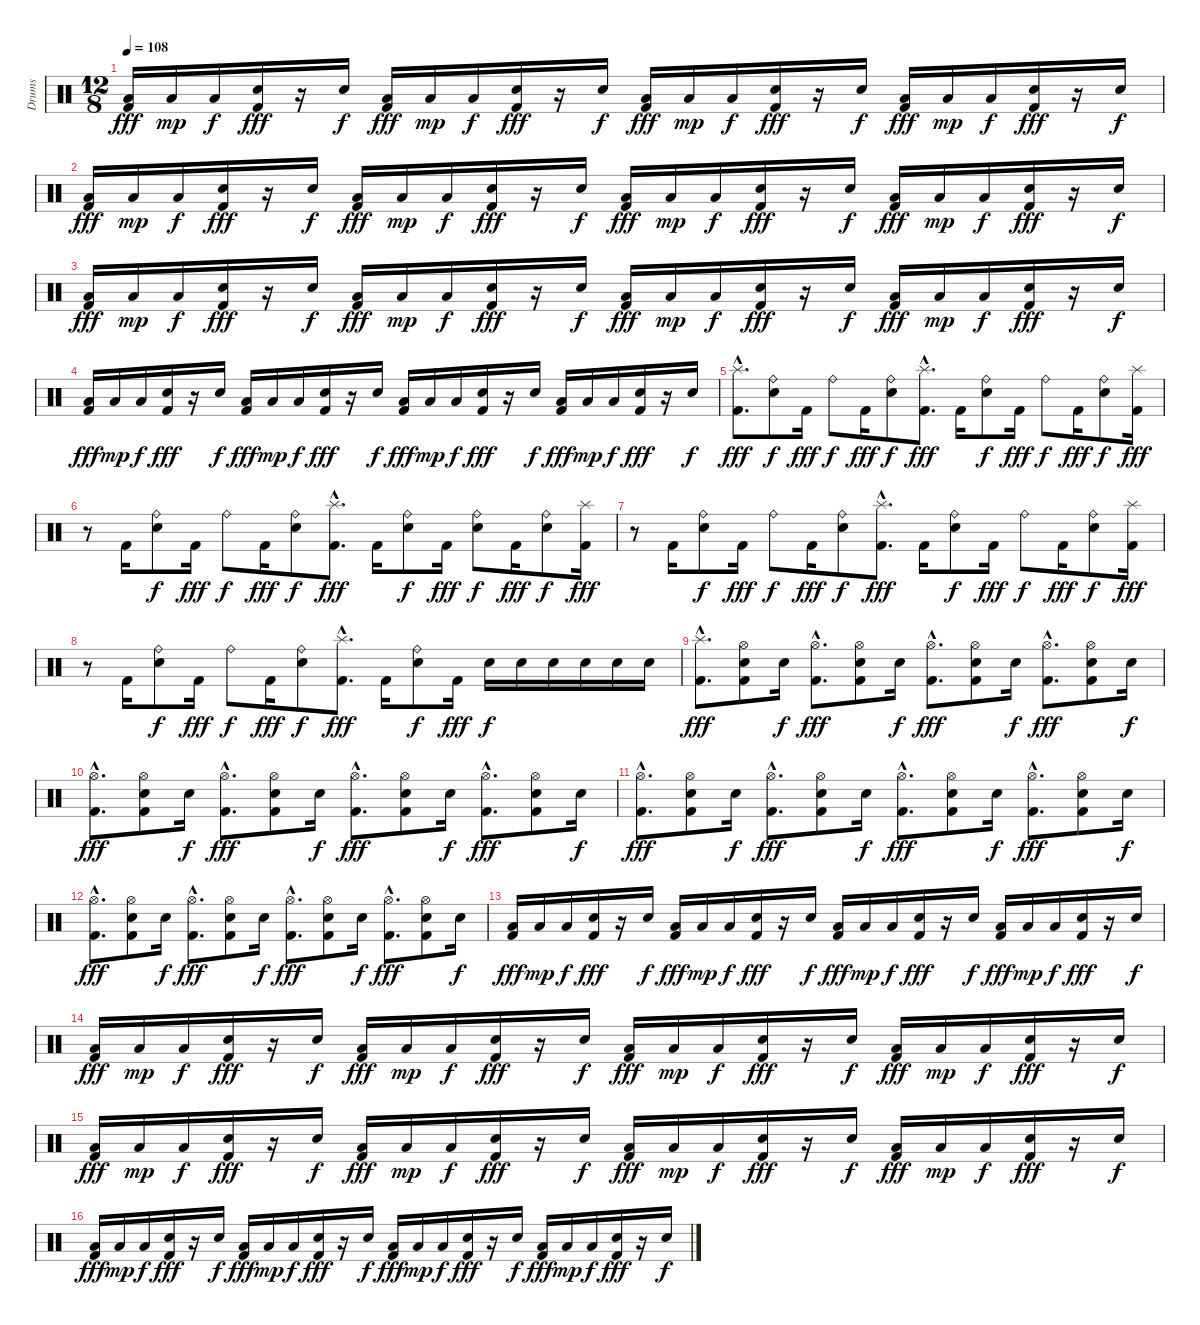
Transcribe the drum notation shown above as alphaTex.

\track ("Drums" "Drums") {instrument percussion}
\staff {score}
\articulation defaults
\ts (12 8)
\tempo 108
\clef neutral
\ks c
("Low Floor Tom (hit)" "Kick (hit) 2").16{dy fff} "Low Floor Tom (hit)".16{dy mp} "Low Floor Tom (hit)".16{dy f} ("Snare (hit) 2" "Kick (hit) 2").16{dy fff} r.16 "Snare (hit) 2".16{dy f} ("Low Floor Tom (hit)" "Kick (hit) 2").16{dy fff} "Low Floor Tom (hit)".16{dy mp} "Low Floor Tom (hit)".16{dy f} ("Snare (hit) 2" "Kick (hit) 2").16{dy fff} r.16 "Snare (hit) 2".16{dy f} ("Low Floor Tom (hit)" "Kick (hit) 2").16{dy fff} "Low Floor Tom (hit)".16{dy mp} "Low Floor Tom (hit)".16{dy f} ("Snare (hit) 2" "Kick (hit) 2").16{dy fff} r.16 "Snare (hit) 2".16{dy f} ("Low Floor Tom (hit)" "Kick (hit) 2").16{dy fff} "Low Floor Tom (hit)".16{dy mp} "Low Floor Tom (hit)".16{dy f} ("Snare (hit) 2" "Kick (hit) 2").16{dy fff} r.16 "Snare (hit) 2".16{dy f} |
("Low Floor Tom (hit)" "Kick (hit) 2").16{dy fff} "Low Floor Tom (hit)".16{dy mp} "Low Floor Tom (hit)".16{dy f} ("Snare (hit) 2" "Kick (hit) 2").16{dy fff} r.16 "Snare (hit) 2".16{dy f} ("Low Floor Tom (hit)" "Kick (hit) 2").16{dy fff} "Low Floor Tom (hit)".16{dy mp} "Low Floor Tom (hit)".16{dy f} ("Snare (hit) 2" "Kick (hit) 2").16{dy fff} r.16 "Snare (hit) 2".16{dy f} ("Low Floor Tom (hit)" "Kick (hit) 2").16{dy fff} "Low Floor Tom (hit)".16{dy mp} "Low Floor Tom (hit)".16{dy f} ("Snare (hit) 2" "Kick (hit) 2").16{dy fff} r.16 "Snare (hit) 2".16{dy f} ("Low Floor Tom (hit)" "Kick (hit) 2").16{dy fff} "Low Floor Tom (hit)".16{dy mp} "Low Floor Tom (hit)".16{dy f} ("Snare (hit) 2" "Kick (hit) 2").16{dy fff} r.16 "Snare (hit) 2".16{dy f} |
("Low Floor Tom (hit)" "Kick (hit) 2").16{dy fff} "Low Floor Tom (hit)".16{dy mp} "Low Floor Tom (hit)".16{dy f} ("Snare (hit) 2" "Kick (hit) 2").16{dy fff} r.16 "Snare (hit) 2".16{dy f} ("Low Floor Tom (hit)" "Kick (hit) 2").16{dy fff} "Low Floor Tom (hit)".16{dy mp} "Low Floor Tom (hit)".16{dy f} ("Snare (hit) 2" "Kick (hit) 2").16{dy fff} r.16 "Snare (hit) 2".16{dy f} ("Low Floor Tom (hit)" "Kick (hit) 2").16{dy fff} "Low Floor Tom (hit)".16{dy mp} "Low Floor Tom (hit)".16{dy f} ("Snare (hit) 2" "Kick (hit) 2").16{dy fff} r.16 "Snare (hit) 2".16{dy f} ("Low Floor Tom (hit)" "Kick (hit) 2").16{dy fff} "Low Floor Tom (hit)".16{dy mp} "Low Floor Tom (hit)".16{dy f} ("Snare (hit) 2" "Kick (hit) 2").16{dy fff} r.16 "Snare (hit) 2".16{dy f} |
("Low Floor Tom (hit)" "Kick (hit) 2").16{dy fff} "Low Floor Tom (hit)".16{dy mp} "Low Floor Tom (hit)".16{dy f} ("Snare (hit) 2" "Kick (hit) 2").16{dy fff} r.16 "Snare (hit) 2".16{dy f} ("Low Floor Tom (hit)" "Kick (hit) 2").16{dy fff} "Low Floor Tom (hit)".16{dy mp} "Low Floor Tom (hit)".16{dy f} ("Snare (hit) 2" "Kick (hit) 2").16{dy fff} r.16 "Snare (hit) 2".16{dy f} ("Low Floor Tom (hit)" "Kick (hit) 2").16{dy fff} "Low Floor Tom (hit)".16{dy mp} "Low Floor Tom (hit)".16{dy f} ("Snare (hit) 2" "Kick (hit) 2").16{dy fff} r.16 "Snare (hit) 2".16{dy f} ("Low Floor Tom (hit)" "Kick (hit) 2").16{dy fff} "Low Floor Tom (hit)".16{dy mp} "Low Floor Tom (hit)".16{dy f} ("Snare (hit) 2" "Kick (hit) 2").16{dy fff} r.16 "Snare (hit) 2".16{dy f} |
("Splash (hit)"{hac} "Kick (hit) 2"{hac}).8{d dy fff} ("Ride (bell)" "Snare (hit) 2").8{dy f} "Kick (hit) 2".16{dy fff} "Ride (bell)".8{dy f} "Kick (hit) 2".16{dy fff} ("Ride (bell)" "Snare (hit) 2").8{dy f} ("Splash (hit)"{hac} "Kick (hit) 2"{hac}).8{d dy fff} "Kick (hit) 2".16 ("Ride (bell)" "Snare (hit) 2").8{dy f} "Kick (hit) 2".16{dy fff} "Ride (bell)".8{dy f} "Kick (hit) 2".16{dy fff} ("Ride (bell)" "Snare (hit) 2").8{dy f} ("Splash (hit)" "Kick (hit) 2").16{dy fff} |
r.8 "Kick (hit) 2".16 ("Ride (bell)" "Snare (hit) 2").8{dy f} "Kick (hit) 2".16{dy fff} "Ride (bell)".8{dy f} "Kick (hit) 2".16{dy fff} ("Ride (bell)" "Snare (hit) 2").8{dy f} ("Splash (hit)"{hac} "Kick (hit) 2"{hac}).8{d dy fff} "Kick (hit) 2".16 ("Ride (bell)" "Snare (hit) 2").8{dy f} "Kick (hit) 2".16{dy fff} ("Ride (bell)" "Snare (hit) 2").8{dy f} "Kick (hit) 2".16{dy fff} ("Ride (bell)" "Snare (hit) 2").8{dy f} ("Splash (hit)" "Kick (hit) 2").16{dy fff} |
r.8 "Kick (hit) 2".16 ("Ride (bell)" "Snare (hit) 2").8{dy f} "Kick (hit) 2".16{dy fff} "Ride (bell)".8{dy f} "Kick (hit) 2".16{dy fff} ("Ride (bell)" "Snare (hit) 2").8{dy f} ("Splash (hit)"{hac} "Kick (hit) 2"{hac}).8{d dy fff} "Kick (hit) 2".16 ("Ride (bell)" "Snare (hit) 2").8{dy f} "Kick (hit) 2".16{dy fff} "Ride (bell)".8{dy f} "Kick (hit) 2".16{dy fff} ("Ride (bell)" "Snare (hit) 2").8{dy f} ("Splash (hit)" "Kick (hit) 2").16{dy fff} |
r.8 "Kick (hit) 2".16 ("Ride (bell)" "Snare (hit) 2").8{dy f} "Kick (hit) 2".16{dy fff} "Ride (bell)".8{dy f} "Kick (hit) 2".16{dy fff} ("Ride (bell)" "Snare (hit) 2").8{dy f} ("Splash (hit)"{hac} "Kick (hit) 2"{hac}).8{d dy fff} "Kick (hit) 2".16 ("Ride (bell)" "Snare (hit) 2").8{dy f} "Kick (hit) 2".16{dy fff} "Snare (hit) 2".16{dy f} "Snare (hit) 2".16 "Snare (hit) 2".16 "Snare (hit) 2".16 "Snare (hit) 2".16 "Snare (hit) 2".16 |
("Splash (hit)"{hac} "Kick (hit) 2"{hac}).8{d dy fff} ("Hi-Hat (open)" "Snare (hit) 2" "Kick (hit) 2").8 "Snare (hit) 2".16{dy f} ("Hi-Hat (open)"{hac} "Kick (hit) 2"{hac}).8{d dy fff} ("Hi-Hat (open)" "Snare (hit) 2" "Kick (hit) 2").8 "Snare (hit) 2".16{dy f} ("Hi-Hat (open)"{hac} "Kick (hit) 2"{hac}).8{d dy fff} ("Hi-Hat (open)" "Snare (hit) 2" "Kick (hit) 2").8 "Snare (hit) 2".16{dy f} ("Hi-Hat (open)"{hac} "Kick (hit) 2"{hac}).8{d dy fff} ("Hi-Hat (open)" "Snare (hit) 2" "Kick (hit) 2").8 "Snare (hit) 2".16{dy f} |
("Hi-Hat (open)"{hac} "Kick (hit) 2"{hac}).8{d dy fff} ("Hi-Hat (open)" "Snare (hit) 2" "Kick (hit) 2").8 "Snare (hit) 2".16{dy f} ("Hi-Hat (open)"{hac} "Kick (hit) 2"{hac}).8{d dy fff} ("Hi-Hat (open)" "Snare (hit) 2" "Kick (hit) 2").8 "Snare (hit) 2".16{dy f} ("Hi-Hat (open)"{hac} "Kick (hit) 2"{hac}).8{d dy fff} ("Hi-Hat (open)" "Snare (hit) 2" "Kick (hit) 2").8 "Snare (hit) 2".16{dy f} ("Hi-Hat (open)"{hac} "Kick (hit) 2"{hac}).8{d dy fff} ("Hi-Hat (open)" "Snare (hit) 2" "Kick (hit) 2").8 "Snare (hit) 2".16{dy f} |
("Hi-Hat (open)"{hac} "Kick (hit) 2"{hac}).8{d dy fff} ("Hi-Hat (open)" "Snare (hit) 2" "Kick (hit) 2").8 "Snare (hit) 2".16{dy f} ("Hi-Hat (open)"{hac} "Kick (hit) 2"{hac}).8{d dy fff} ("Hi-Hat (open)" "Snare (hit) 2" "Kick (hit) 2").8 "Snare (hit) 2".16{dy f} ("Hi-Hat (open)"{hac} "Kick (hit) 2"{hac}).8{d dy fff} ("Hi-Hat (open)" "Snare (hit) 2" "Kick (hit) 2").8 "Snare (hit) 2".16{dy f} ("Hi-Hat (open)"{hac} "Kick (hit) 2"{hac}).8{d dy fff} ("Hi-Hat (open)" "Snare (hit) 2" "Kick (hit) 2").8 "Snare (hit) 2".16{dy f} |
("Hi-Hat (open)"{hac} "Kick (hit) 2"{hac}).8{d dy fff} ("Hi-Hat (open)" "Snare (hit) 2" "Kick (hit) 2").8 "Snare (hit) 2".16{dy f} ("Hi-Hat (open)"{hac} "Kick (hit) 2"{hac}).8{d dy fff} ("Hi-Hat (open)" "Snare (hit) 2" "Kick (hit) 2").8 "Snare (hit) 2".16{dy f} ("Hi-Hat (open)"{hac} "Kick (hit) 2"{hac}).8{d dy fff} ("Hi-Hat (open)" "Snare (hit) 2" "Kick (hit) 2").8 "Snare (hit) 2".16{dy f} ("Hi-Hat (open)"{hac} "Kick (hit) 2"{hac}).8{d dy fff} ("Hi-Hat (open)" "Snare (hit) 2" "Kick (hit) 2").8 "Snare (hit) 2".16{dy f} |
("Low Floor Tom (hit)" "Kick (hit) 2").16{dy fff} "Low Floor Tom (hit)".16{dy mp} "Low Floor Tom (hit)".16{dy f} ("Snare (hit) 2" "Kick (hit) 2").16{dy fff} r.16 "Snare (hit) 2".16{dy f} ("Low Floor Tom (hit)" "Kick (hit) 2").16{dy fff} "Low Floor Tom (hit)".16{dy mp} "Low Floor Tom (hit)".16{dy f} ("Snare (hit) 2" "Kick (hit) 2").16{dy fff} r.16 "Snare (hit) 2".16{dy f} ("Low Floor Tom (hit)" "Kick (hit) 2").16{dy fff} "Low Floor Tom (hit)".16{dy mp} "Low Floor Tom (hit)".16{dy f} ("Snare (hit) 2" "Kick (hit) 2").16{dy fff} r.16 "Snare (hit) 2".16{dy f} ("Low Floor Tom (hit)" "Kick (hit) 2").16{dy fff} "Low Floor Tom (hit)".16{dy mp} "Low Floor Tom (hit)".16{dy f} ("Snare (hit) 2" "Kick (hit) 2").16{dy fff} r.16 "Snare (hit) 2".16{dy f} |
("Low Floor Tom (hit)" "Kick (hit) 2").16{dy fff} "Low Floor Tom (hit)".16{dy mp} "Low Floor Tom (hit)".16{dy f} ("Snare (hit) 2" "Kick (hit) 2").16{dy fff} r.16 "Snare (hit) 2".16{dy f} ("Low Floor Tom (hit)" "Kick (hit) 2").16{dy fff} "Low Floor Tom (hit)".16{dy mp} "Low Floor Tom (hit)".16{dy f} ("Snare (hit) 2" "Kick (hit) 2").16{dy fff} r.16 "Snare (hit) 2".16{dy f} ("Low Floor Tom (hit)" "Kick (hit) 2").16{dy fff} "Low Floor Tom (hit)".16{dy mp} "Low Floor Tom (hit)".16{dy f} ("Snare (hit) 2" "Kick (hit) 2").16{dy fff} r.16 "Snare (hit) 2".16{dy f} ("Low Floor Tom (hit)" "Kick (hit) 2").16{dy fff} "Low Floor Tom (hit)".16{dy mp} "Low Floor Tom (hit)".16{dy f} ("Snare (hit) 2" "Kick (hit) 2").16{dy fff} r.16 "Snare (hit) 2".16{dy f} |
("Low Floor Tom (hit)" "Kick (hit) 2").16{dy fff} "Low Floor Tom (hit)".16{dy mp} "Low Floor Tom (hit)".16{dy f} ("Snare (hit) 2" "Kick (hit) 2").16{dy fff} r.16 "Snare (hit) 2".16{dy f} ("Low Floor Tom (hit)" "Kick (hit) 2").16{dy fff} "Low Floor Tom (hit)".16{dy mp} "Low Floor Tom (hit)".16{dy f} ("Snare (hit) 2" "Kick (hit) 2").16{dy fff} r.16 "Snare (hit) 2".16{dy f} ("Low Floor Tom (hit)" "Kick (hit) 2").16{dy fff} "Low Floor Tom (hit)".16{dy mp} "Low Floor Tom (hit)".16{dy f} ("Snare (hit) 2" "Kick (hit) 2").16{dy fff} r.16 "Snare (hit) 2".16{dy f} ("Low Floor Tom (hit)" "Kick (hit) 2").16{dy fff} "Low Floor Tom (hit)".16{dy mp} "Low Floor Tom (hit)".16{dy f} ("Snare (hit) 2" "Kick (hit) 2").16{dy fff} r.16 "Snare (hit) 2".16{dy f} |
("Low Floor Tom (hit)" "Kick (hit) 2").16{dy fff} "Low Floor Tom (hit)".16{dy mp} "Low Floor Tom (hit)".16{dy f} ("Snare (hit) 2" "Kick (hit) 2").16{dy fff} r.16 "Snare (hit) 2".16{dy f} ("Low Floor Tom (hit)" "Kick (hit) 2").16{dy fff} "Low Floor Tom (hit)".16{dy mp} "Low Floor Tom (hit)".16{dy f} ("Snare (hit) 2" "Kick (hit) 2").16{dy fff} r.16 "Snare (hit) 2".16{dy f} ("Low Floor Tom (hit)" "Kick (hit) 2").16{dy fff} "Low Floor Tom (hit)".16{dy mp} "Low Floor Tom (hit)".16{dy f} ("Snare (hit) 2" "Kick (hit) 2").16{dy fff} r.16 "Snare (hit) 2".16{dy f} ("Low Floor Tom (hit)" "Kick (hit) 2").16{dy fff} "Low Floor Tom (hit)".16{dy mp} "Low Floor Tom (hit)".16{dy f} ("Snare (hit) 2" "Kick (hit) 2").16{dy fff} r.16 "Snare (hit) 2".16{dy f}
